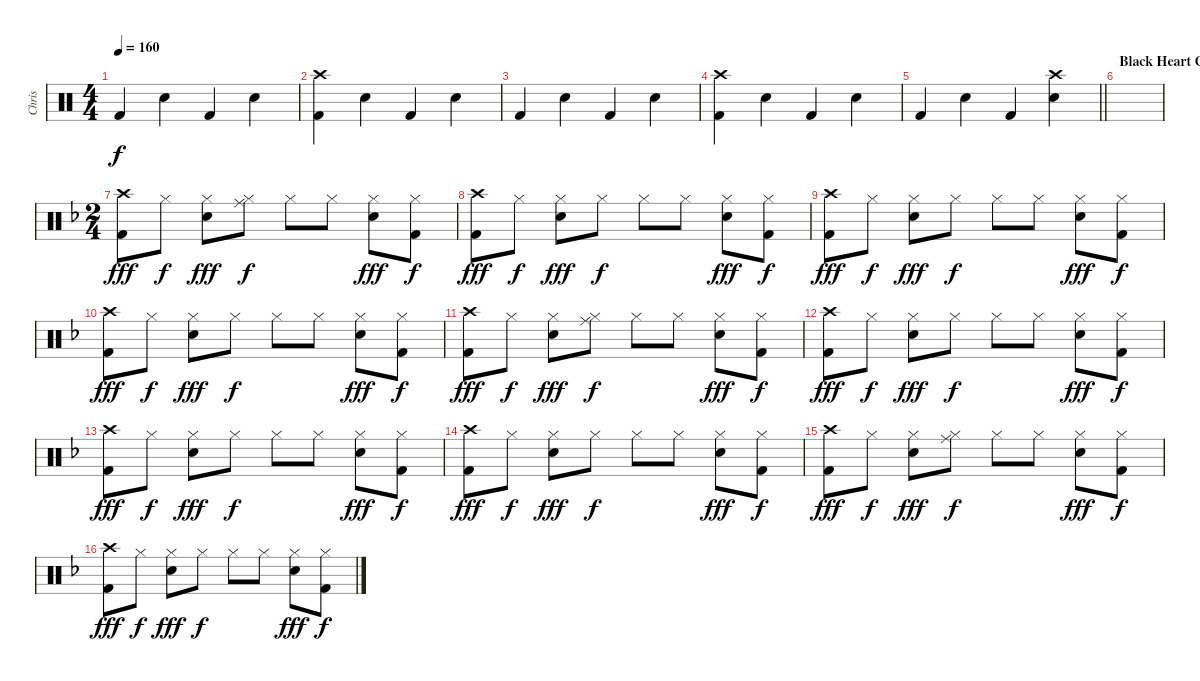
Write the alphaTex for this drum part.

\track ("Chris" "Chris") {instrument percussion}
\staff {score}
\articulation defaults
\ts (4 4)
\tempo 160
\clef neutral
\ks c "Kick (hit) 2".4{dy f} "Electric Snare (hit)".4 "Kick (hit) 2".4 "Electric Snare (hit)".4
|
("Crash high (hit)" "Kick (hit) 2").4 "Electric Snare (hit)".4 "Kick (hit) 2".4 "Electric Snare (hit)".4 |
"Kick (hit) 2".4 "Electric Snare (hit)".4 "Kick (hit) 2".4 "Electric Snare (hit)".4 |
("Crash high (hit)" "Kick (hit) 2").4 "Electric Snare (hit)".4 "Kick (hit) 2".4 "Electric Snare (hit)".4 |
\barLineRight lightlight "Kick (hit) 2".4 "Electric Snare (hit)".4 "Kick (hit) 2".4
("Crash high (hit)" "Electric Snare (hit)").4 |
\section ("" "Black Heart Chorus")
|
\ts (2 4)
\ks f
("Crash high (hit)" "Kick (hit) 2").8{dy fff} "Hi-Hat (closed)".8{dy f} ("Hi-Hat (closed)" "Snare (hit) 2").8{dy fff} ("Hi-Hat (closed)" "Ride (middle)").8{dy f} "Hi-Hat (closed)".8 "Hi-Hat (closed)".8 ("Hi-Hat (closed)" "Snare (hit) 2").8{dy fff} ("Hi-Hat (closed)" "Kick (hit) 2").8{dy f} |
("Crash high (hit)" "Kick (hit) 2").8{dy fff} "Hi-Hat (closed)".8{dy f} ("Hi-Hat (closed)" "Snare (hit) 2").8{dy fff} "Hi-Hat (closed)".8{dy f} "Hi-Hat (closed)".8 "Hi-Hat (closed)".8 ("Hi-Hat (closed)" "Snare (hit) 2").8{dy fff} ("Hi-Hat (closed)" "Kick (hit) 2").8{dy f} |
("Crash high (hit)" "Kick (hit) 2").8{dy fff} "Hi-Hat (closed)".8{dy f} ("Hi-Hat (closed)" "Snare (hit) 2").8{dy fff} "Hi-Hat (closed)".8{dy f} "Hi-Hat (closed)".8 "Hi-Hat (closed)".8 ("Hi-Hat (closed)" "Snare (hit) 2").8{dy fff} ("Hi-Hat (closed)" "Kick (hit) 2").8{dy f} |
("Crash high (hit)" "Kick (hit) 2").8{dy fff} "Hi-Hat (closed)".8{dy f} ("Hi-Hat (closed)" "Snare (hit) 2").8{dy fff} "Hi-Hat (closed)".8{dy f} "Hi-Hat (closed)".8 "Hi-Hat (closed)".8 ("Hi-Hat (closed)" "Snare (hit) 2").8{dy fff} ("Hi-Hat (closed)" "Kick (hit) 2").8{dy f} |
("Crash high (hit)" "Kick (hit) 2").8{dy fff} "Hi-Hat (closed)".8{dy f} ("Hi-Hat (closed)" "Snare (hit) 2").8{dy fff} ("Hi-Hat (closed)" "Ride (middle)").8{dy f} "Hi-Hat (closed)".8 "Hi-Hat (closed)".8 ("Hi-Hat (closed)" "Snare (hit) 2").8{dy fff} ("Hi-Hat (closed)" "Kick (hit) 2").8{dy f} |
("Crash high (hit)" "Kick (hit) 2").8{dy fff} "Hi-Hat (closed)".8{dy f} ("Hi-Hat (closed)" "Snare (hit) 2").8{dy fff} "Hi-Hat (closed)".8{dy f} "Hi-Hat (closed)".8 "Hi-Hat (closed)".8 ("Hi-Hat (closed)" "Snare (hit) 2").8{dy fff} ("Hi-Hat (closed)" "Kick (hit) 2").8{dy f} |
("Crash high (hit)" "Kick (hit) 2").8{dy fff} "Hi-Hat (closed)".8{dy f} ("Hi-Hat (closed)" "Snare (hit) 2").8{dy fff} "Hi-Hat (closed)".8{dy f} "Hi-Hat (closed)".8 "Hi-Hat (closed)".8 ("Hi-Hat (closed)" "Snare (hit) 2").8{dy fff} ("Hi-Hat (closed)" "Kick (hit) 2").8{dy f} |
("Crash high (hit)" "Kick (hit) 2").8{dy fff} "Hi-Hat (closed)".8{dy f} ("Hi-Hat (closed)" "Snare (hit) 2").8{dy fff} "Hi-Hat (closed)".8{dy f} "Hi-Hat (closed)".8 "Hi-Hat (closed)".8 ("Hi-Hat (closed)" "Snare (hit) 2").8{dy fff} ("Hi-Hat (closed)" "Kick (hit) 2").8{dy f} |
("Crash high (hit)" "Kick (hit) 2").8{dy fff} "Hi-Hat (closed)".8{dy f} ("Hi-Hat (closed)" "Snare (hit) 2").8{dy fff} ("Hi-Hat (closed)" "Ride (middle)").8{dy f} "Hi-Hat (closed)".8 "Hi-Hat (closed)".8 ("Hi-Hat (closed)" "Snare (hit) 2").8{dy fff} ("Hi-Hat (closed)" "Kick (hit) 2").8{dy f} |
("Crash high (hit)" "Kick (hit) 2").8{dy fff} "Hi-Hat (closed)".8{dy f} ("Hi-Hat (closed)" "Snare (hit) 2").8{dy fff} "Hi-Hat (closed)".8{dy f} "Hi-Hat (closed)".8 "Hi-Hat (closed)".8 ("Hi-Hat (closed)" "Snare (hit) 2").8{dy fff} ("Hi-Hat (closed)" "Kick (hit) 2").8{dy f}
